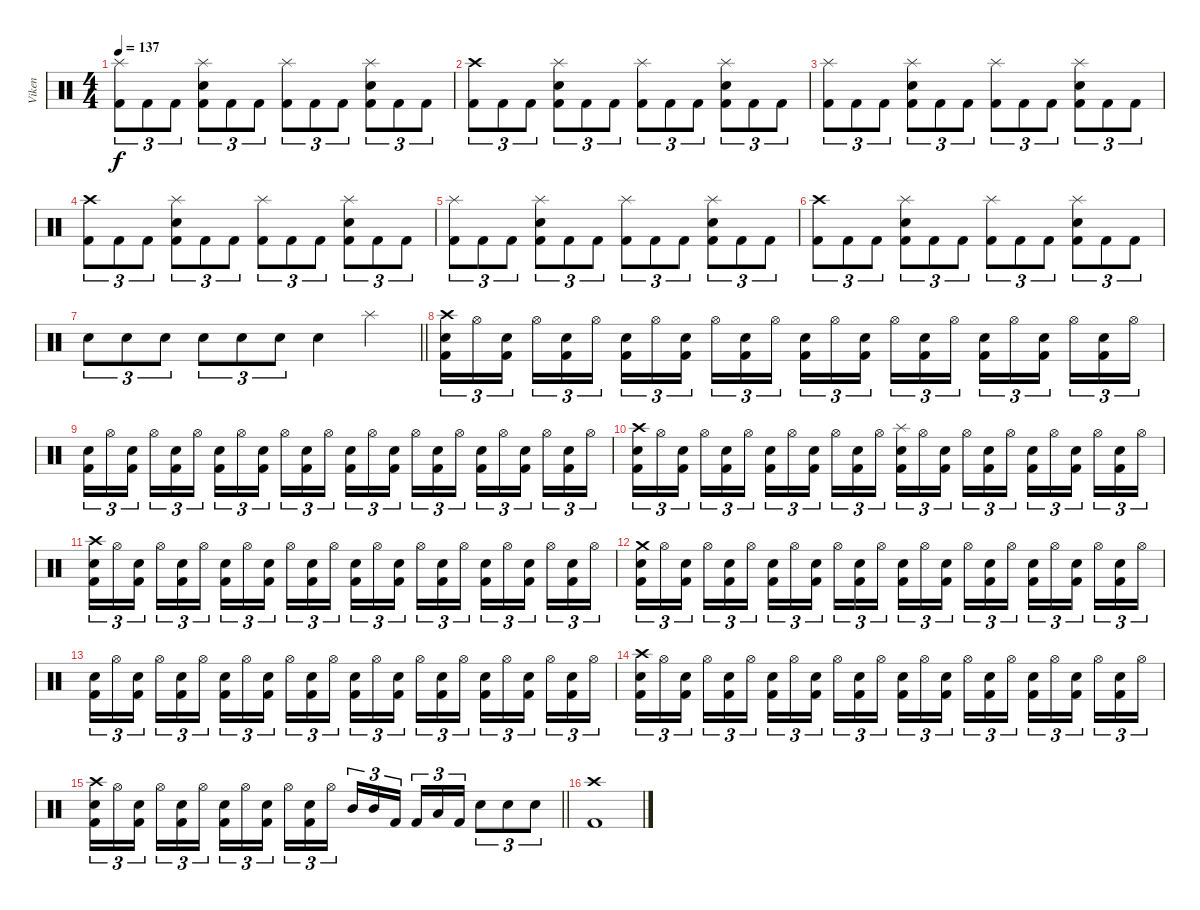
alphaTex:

\track ("Viken" "Viken") {instrument percussion}
\staff {score}
\articulation defaults
\ts (4 4)
\tempo 137
\clef neutral
\ks c
("Splash (hit)" "Kick (hit) 2").8{tu (3 2) dy f} "Kick (hit) 2".8{tu (3 2)} "Kick (hit) 2".8{tu (3 2)} ("Splash (hit)" "Electric Snare (hit)" "Kick (hit) 2").8{tu (3 2)} "Kick (hit) 2".8{tu (3 2)} "Kick (hit) 2".8{tu (3 2)} ("Splash (hit)" "Kick (hit) 2").8{tu (3 2)} "Kick (hit) 2".8{tu (3 2)} "Kick (hit) 2".8{tu (3 2)} ("Splash (hit)" "Electric Snare (hit)" "Kick (hit) 2").8{tu (3 2)} "Kick (hit) 2".8{tu (3 2)} "Kick (hit) 2".8{tu (3 2)} |
("Crash high (hit)" "Kick (hit) 2").8{tu (3 2)} "Kick (hit) 2".8{tu (3 2)} "Kick (hit) 2".8{tu (3 2)} ("Splash (hit)" "Electric Snare (hit)" "Kick (hit) 2").8{tu (3 2)} "Kick (hit) 2".8{tu (3 2)} "Kick (hit) 2".8{tu (3 2)} ("Splash (hit)" "Kick (hit) 2").8{tu (3 2)} "Kick (hit) 2".8{tu (3 2)} "Kick (hit) 2".8{tu (3 2)} ("Splash (hit)" "Electric Snare (hit)" "Kick (hit) 2").8{tu (3 2)} "Kick (hit) 2".8{tu (3 2)} "Kick (hit) 2".8{tu (3 2)} |
("Splash (hit)" "Kick (hit) 2").8{tu (3 2)} "Kick (hit) 2".8{tu (3 2)} "Kick (hit) 2".8{tu (3 2)} ("Splash (hit)" "Electric Snare (hit)" "Kick (hit) 2").8{tu (3 2)} "Kick (hit) 2".8{tu (3 2)} "Kick (hit) 2".8{tu (3 2)} ("Splash (hit)" "Kick (hit) 2").8{tu (3 2)} "Kick (hit) 2".8{tu (3 2)} "Kick (hit) 2".8{tu (3 2)} ("Splash (hit)" "Electric Snare (hit)" "Kick (hit) 2").8{tu (3 2)} "Kick (hit) 2".8{tu (3 2)} "Kick (hit) 2".8{tu (3 2)} |
("Crash high (hit)" "Kick (hit) 2").8{tu (3 2)} "Kick (hit) 2".8{tu (3 2)} "Kick (hit) 2".8{tu (3 2)} ("Splash (hit)" "Electric Snare (hit)" "Kick (hit) 2").8{tu (3 2)} "Kick (hit) 2".8{tu (3 2)} "Kick (hit) 2".8{tu (3 2)} ("Splash (hit)" "Kick (hit) 2").8{tu (3 2)} "Kick (hit) 2".8{tu (3 2)} "Kick (hit) 2".8{tu (3 2)} ("Splash (hit)" "Electric Snare (hit)" "Kick (hit) 2").8{tu (3 2)} "Kick (hit) 2".8{tu (3 2)} "Kick (hit) 2".8{tu (3 2)} |
("Splash (hit)" "Kick (hit) 2").8{tu (3 2)} "Kick (hit) 2".8{tu (3 2)} "Kick (hit) 2".8{tu (3 2)} ("Splash (hit)" "Electric Snare (hit)" "Kick (hit) 2").8{tu (3 2)} "Kick (hit) 2".8{tu (3 2)} "Kick (hit) 2".8{tu (3 2)} ("Splash (hit)" "Kick (hit) 2").8{tu (3 2)} "Kick (hit) 2".8{tu (3 2)} "Kick (hit) 2".8{tu (3 2)} ("Splash (hit)" "Electric Snare (hit)" "Kick (hit) 2").8{tu (3 2)} "Kick (hit) 2".8{tu (3 2)} "Kick (hit) 2".8{tu (3 2)} |
("Crash high (hit)" "Kick (hit) 2").8{tu (3 2)} "Kick (hit) 2".8{tu (3 2)} "Kick (hit) 2".8{tu (3 2)} ("Splash (hit)" "Electric Snare (hit)" "Kick (hit) 2").8{tu (3 2)} "Kick (hit) 2".8{tu (3 2)} "Kick (hit) 2".8{tu (3 2)} ("Splash (hit)" "Kick (hit) 2").8{tu (3 2)} "Kick (hit) 2".8{tu (3 2)} "Kick (hit) 2".8{tu (3 2)} ("Splash (hit)" "Electric Snare (hit)" "Kick (hit) 2").8{tu (3 2)} "Kick (hit) 2".8{tu (3 2)} "Kick (hit) 2".8{tu (3 2)} |
\barLineRight lightlight "Electric Snare (hit)".8{tu (3 2)} "Electric Snare (hit)".8{tu (3 2)} "Electric Snare (hit)".8{tu (3 2)} "Electric Snare (hit)".8{tu (3 2)} "Electric Snare (hit)".8{tu (3 2)} "Electric Snare (hit)".8{tu (3 2)} "Electric Snare (hit)".4 "Splash (hit)".4
|
\section ("" "")
("Crash high (hit)" "Electric Snare (hit)" "Kick (hit) 2").16{tu (3 2)} "Hi-Hat (open)".16{tu (3 2)} ("Electric Snare (hit)" "Kick (hit) 2").16{tu (3 2)} "Hi-Hat (open)".16{tu (3 2)} ("Electric Snare (hit)" "Kick (hit) 2").16{tu (3 2)} "Hi-Hat (open)".16{tu (3 2)} ("Electric Snare (hit)" "Kick (hit) 2").16{tu (3 2)} "Hi-Hat (open)".16{tu (3 2)} ("Electric Snare (hit)" "Kick (hit) 2").16{tu (3 2)} "Hi-Hat (open)".16{tu (3 2)} ("Electric Snare (hit)" "Kick (hit) 2").16{tu (3 2)} "Hi-Hat (open)".16{tu (3 2)} ("Electric Snare (hit)" "Kick (hit) 2").16{tu (3 2)} "Hi-Hat (open)".16{tu (3 2)} ("Electric Snare (hit)" "Kick (hit) 2").16{tu (3 2)} "Hi-Hat (open)".16{tu (3 2)} ("Electric Snare (hit)" "Kick (hit) 2").16{tu (3 2)} "Hi-Hat (open)".16{tu (3 2)} ("Electric Snare (hit)" "Kick (hit) 2").16{tu (3 2)} "Hi-Hat (open)".16{tu (3 2)} ("Electric Snare (hit)" "Kick (hit) 2").16{tu (3 2)} "Hi-Hat (open)".16{tu (3 2)} ("Electric Snare (hit)" "Kick (hit) 2").16{tu (3 2)} "Hi-Hat (open)".16{tu (3 2)} |
("Electric Snare (hit)" "Kick (hit) 2").16{tu (3 2)} "Hi-Hat (open)".16{tu (3 2)} ("Electric Snare (hit)" "Kick (hit) 2").16{tu (3 2)} "Hi-Hat (open)".16{tu (3 2)} ("Electric Snare (hit)" "Kick (hit) 2").16{tu (3 2)} "Hi-Hat (open)".16{tu (3 2)} ("Electric Snare (hit)" "Kick (hit) 2").16{tu (3 2)} "Hi-Hat (open)".16{tu (3 2)} ("Electric Snare (hit)" "Kick (hit) 2").16{tu (3 2)} "Hi-Hat (open)".16{tu (3 2)} ("Electric Snare (hit)" "Kick (hit) 2").16{tu (3 2)} "Hi-Hat (open)".16{tu (3 2)} ("Electric Snare (hit)" "Kick (hit) 2").16{tu (3 2)} "Hi-Hat (open)".16{tu (3 2)} ("Electric Snare (hit)" "Kick (hit) 2").16{tu (3 2)} "Hi-Hat (open)".16{tu (3 2)} ("Electric Snare (hit)" "Kick (hit) 2").16{tu (3 2)} "Hi-Hat (open)".16{tu (3 2)} ("Electric Snare (hit)" "Kick (hit) 2").16{tu (3 2)} "Hi-Hat (open)".16{tu (3 2)} ("Electric Snare (hit)" "Kick (hit) 2").16{tu (3 2)} "Hi-Hat (open)".16{tu (3 2)} ("Electric Snare (hit)" "Kick (hit) 2").16{tu (3 2)} "Hi-Hat (open)".16{tu (3 2)} |
("Crash high (hit)" "Electric Snare (hit)" "Kick (hit) 2").16{tu (3 2)} "Hi-Hat (open)".16{tu (3 2)} ("Electric Snare (hit)" "Kick (hit) 2").16{tu (3 2)} "Hi-Hat (open)".16{tu (3 2)} ("Electric Snare (hit)" "Kick (hit) 2").16{tu (3 2)} "Hi-Hat (open)".16{tu (3 2)} ("Electric Snare (hit)" "Kick (hit) 2").16{tu (3 2)} "Hi-Hat (open)".16{tu (3 2)} ("Electric Snare (hit)" "Kick (hit) 2").16{tu (3 2)} "Hi-Hat (open)".16{tu (3 2)} ("Electric Snare (hit)" "Kick (hit) 2").16{tu (3 2)} "Hi-Hat (open)".16{tu (3 2)} ("Splash (hit)" "Electric Snare (hit)" "Kick (hit) 2").16{tu (3 2)} "Hi-Hat (open)".16{tu (3 2)} ("Electric Snare (hit)" "Kick (hit) 2").16{tu (3 2)} "Hi-Hat (open)".16{tu (3 2)} ("Electric Snare (hit)" "Kick (hit) 2").16{tu (3 2)} "Hi-Hat (open)".16{tu (3 2)} ("Electric Snare (hit)" "Kick (hit) 2").16{tu (3 2)} "Hi-Hat (open)".16{tu (3 2)} ("Electric Snare (hit)" "Kick (hit) 2").16{tu (3 2)} "Hi-Hat (open)".16{tu (3 2)} ("Electric Snare (hit)" "Kick (hit) 2").16{tu (3 2)} "Hi-Hat (open)".16{tu (3 2)} |
("Crash high (hit)" "Electric Snare (hit)" "Kick (hit) 2").16{tu (3 2)} "Hi-Hat (open)".16{tu (3 2)} ("Electric Snare (hit)" "Kick (hit) 2").16{tu (3 2)} "Hi-Hat (open)".16{tu (3 2)} ("Electric Snare (hit)" "Kick (hit) 2").16{tu (3 2)} "Hi-Hat (open)".16{tu (3 2)} ("Electric Snare (hit)" "Kick (hit) 2").16{tu (3 2)} "Hi-Hat (open)".16{tu (3 2)} ("Electric Snare (hit)" "Kick (hit) 2").16{tu (3 2)} "Hi-Hat (open)".16{tu (3 2)} ("Electric Snare (hit)" "Kick (hit) 2").16{tu (3 2)} "Hi-Hat (open)".16{tu (3 2)} ("Electric Snare (hit)" "Kick (hit) 2").16{tu (3 2)} "Hi-Hat (open)".16{tu (3 2)} ("Electric Snare (hit)" "Kick (hit) 2").16{tu (3 2)} "Hi-Hat (open)".16{tu (3 2)} ("Electric Snare (hit)" "Kick (hit) 2").16{tu (3 2)} "Hi-Hat (open)".16{tu (3 2)} ("Electric Snare (hit)" "Kick (hit) 2").16{tu (3 2)} "Hi-Hat (open)".16{tu (3 2)} ("Electric Snare (hit)" "Kick (hit) 2").16{tu (3 2)} "Hi-Hat (open)".16{tu (3 2)} ("Electric Snare (hit)" "Kick (hit) 2").16{tu (3 2)} "Hi-Hat (open)".16{tu (3 2)} |
("Crash medium (hit)" "Electric Snare (hit)" "Kick (hit) 2").16{tu (3 2)} "Hi-Hat (open)".16{tu (3 2)} ("Electric Snare (hit)" "Kick (hit) 2").16{tu (3 2)} "Hi-Hat (open)".16{tu (3 2)} ("Electric Snare (hit)" "Kick (hit) 2").16{tu (3 2)} "Hi-Hat (open)".16{tu (3 2)} ("Electric Snare (hit)" "Kick (hit) 2").16{tu (3 2)} "Hi-Hat (open)".16{tu (3 2)} ("Electric Snare (hit)" "Kick (hit) 2").16{tu (3 2)} "Hi-Hat (open)".16{tu (3 2)} ("Electric Snare (hit)" "Kick (hit) 2").16{tu (3 2)} "Hi-Hat (open)".16{tu (3 2)} ("Electric Snare (hit)" "Kick (hit) 2").16{tu (3 2)} "Hi-Hat (open)".16{tu (3 2)} ("Electric Snare (hit)" "Kick (hit) 2").16{tu (3 2)} "Hi-Hat (open)".16{tu (3 2)} ("Electric Snare (hit)" "Kick (hit) 2").16{tu (3 2)} "Hi-Hat (open)".16{tu (3 2)} ("Electric Snare (hit)" "Kick (hit) 2").16{tu (3 2)} "Hi-Hat (open)".16{tu (3 2)} ("Electric Snare (hit)" "Kick (hit) 2").16{tu (3 2)} "Hi-Hat (open)".16{tu (3 2)} ("Electric Snare (hit)" "Kick (hit) 2").16{tu (3 2)} "Hi-Hat (open)".16{tu (3 2)} |
("Electric Snare (hit)" "Kick (hit) 2").16{tu (3 2)} "Hi-Hat (open)".16{tu (3 2)} ("Electric Snare (hit)" "Kick (hit) 2").16{tu (3 2)} "Hi-Hat (open)".16{tu (3 2)} ("Electric Snare (hit)" "Kick (hit) 2").16{tu (3 2)} "Hi-Hat (open)".16{tu (3 2)} ("Electric Snare (hit)" "Kick (hit) 2").16{tu (3 2)} "Hi-Hat (open)".16{tu (3 2)} ("Electric Snare (hit)" "Kick (hit) 2").16{tu (3 2)} "Hi-Hat (open)".16{tu (3 2)} ("Electric Snare (hit)" "Kick (hit) 2").16{tu (3 2)} "Hi-Hat (open)".16{tu (3 2)} ("Electric Snare (hit)" "Kick (hit) 2").16{tu (3 2)} "Hi-Hat (open)".16{tu (3 2)} ("Electric Snare (hit)" "Kick (hit) 2").16{tu (3 2)} "Hi-Hat (open)".16{tu (3 2)} ("Electric Snare (hit)" "Kick (hit) 2").16{tu (3 2)} "Hi-Hat (open)".16{tu (3 2)} ("Electric Snare (hit)" "Kick (hit) 2").16{tu (3 2)} "Hi-Hat (open)".16{tu (3 2)} ("Electric Snare (hit)" "Kick (hit) 2").16{tu (3 2)} "Hi-Hat (open)".16{tu (3 2)} ("Electric Snare (hit)" "Kick (hit) 2").16{tu (3 2)} "Hi-Hat (open)".16{tu (3 2)} |
("Crash high (hit)" "Electric Snare (hit)" "Kick (hit) 2").16{tu (3 2)} "Hi-Hat (open)".16{tu (3 2)} ("Electric Snare (hit)" "Kick (hit) 2").16{tu (3 2)} "Hi-Hat (open)".16{tu (3 2)} ("Electric Snare (hit)" "Kick (hit) 2").16{tu (3 2)} "Hi-Hat (open)".16{tu (3 2)} ("Electric Snare (hit)" "Kick (hit) 2").16{tu (3 2)} "Hi-Hat (open)".16{tu (3 2)} ("Electric Snare (hit)" "Kick (hit) 2").16{tu (3 2)} "Hi-Hat (open)".16{tu (3 2)} ("Electric Snare (hit)" "Kick (hit) 2").16{tu (3 2)} "Hi-Hat (open)".16{tu (3 2)} ("Electric Snare (hit)" "Kick (hit) 2").16{tu (3 2)} "Hi-Hat (open)".16{tu (3 2)} ("Electric Snare (hit)" "Kick (hit) 2").16{tu (3 2)} "Hi-Hat (open)".16{tu (3 2)} ("Electric Snare (hit)" "Kick (hit) 2").16{tu (3 2)} "Hi-Hat (open)".16{tu (3 2)} ("Electric Snare (hit)" "Kick (hit) 2").16{tu (3 2)} "Hi-Hat (open)".16{tu (3 2)} ("Electric Snare (hit)" "Kick (hit) 2").16{tu (3 2)} "Hi-Hat (open)".16{tu (3 2)} ("Electric Snare (hit)" "Kick (hit) 2").16{tu (3 2)} "Hi-Hat (open)".16{tu (3 2)} |
\barLineRight lightlight
("Crash high (hit)" "Electric Snare (hit)" "Kick (hit) 2").16{tu (3 2)} "Hi-Hat (open)".16{tu (3 2)} ("Electric Snare (hit)" "Kick (hit) 2").16{tu (3 2)} "Hi-Hat (open)".16{tu (3 2)} ("Electric Snare (hit)" "Kick (hit) 2").16{tu (3 2)} "Hi-Hat (open)".16{tu (3 2)} ("Electric Snare (hit)" "Kick (hit) 2").16{tu (3 2)} "Hi-Hat (open)".16{tu (3 2)} ("Electric Snare (hit)" "Kick (hit) 2").16{tu (3 2)} "Hi-Hat (open)".16{tu (3 2)} ("Electric Snare (hit)" "Kick (hit) 2").16{tu (3 2)} "Hi-Hat (open)".16{tu (3 2)} "Mid Tom (hit)".16{tu (3 2)} "Mid Tom (hit)".16{tu (3 2)} "Kick (hit) 2".16{tu (3 2)} "Kick (hit) 2".16{tu (3 2)} "Low Tom (hit)".16{tu (3 2)} "Kick (hit) 2".16{tu (3 2)} "Electric Snare (hit)".8{tu (3 2)} "Electric Snare (hit)".8{tu (3 2)} "Electric Snare (hit)".8{tu (3 2)} |
("Crash high (hit)" "Kick (hit) 2").1
